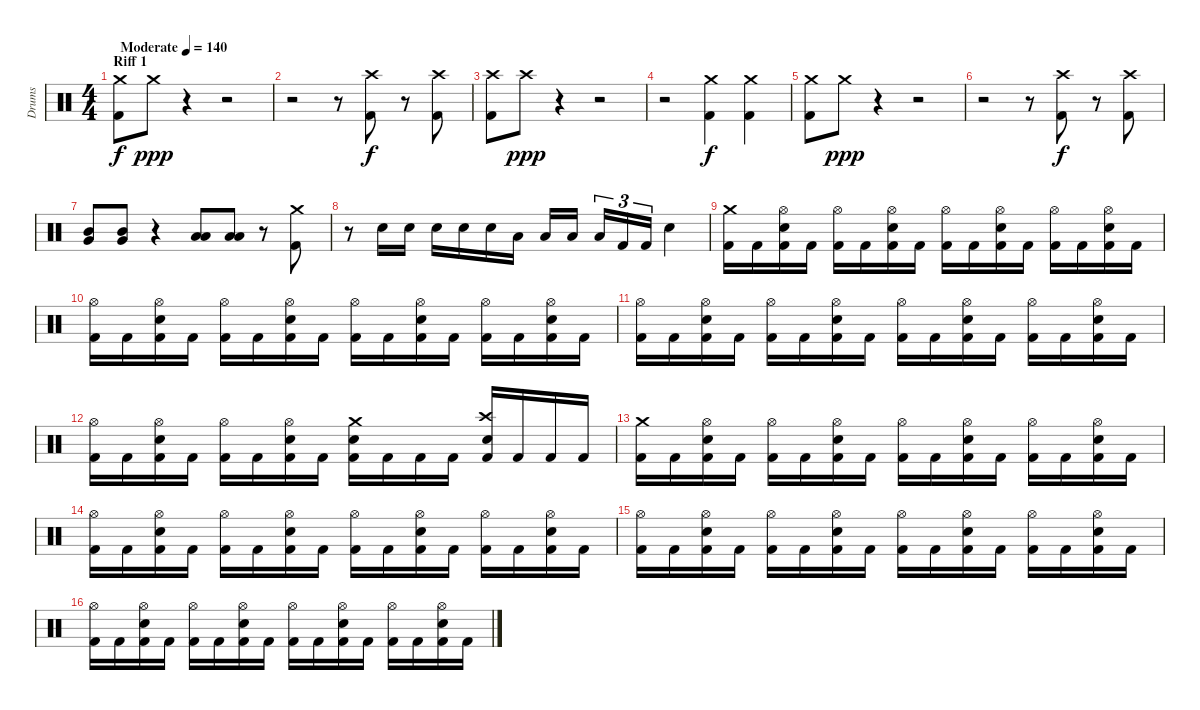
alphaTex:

\track ("Drums" "Drums") {instrument percussion}
\staff {score}
\articulation defaults
\ts (4 4)
\section ("" "Riff 1")
\tempo (140 "Moderate")
\clef neutral
\ks c
("Crash medium (hit)" "Kick (hit) 2").8{dy f} "Crash medium (hit)".8{dy ppp} r.4 r.2 |
r.2 r.8 ("Crash high (hit)" "Kick (hit) 2").8{dy f} r.8 ("Crash high (hit)" "Kick (hit) 2").8 |
("Crash high (hit)" "Kick (hit) 2").8 "Crash high (hit)".8{dy ppp} r.4 r.2 |
r.2 ("Kick (hit) 2" "Crash medium (hit)").4{dy f} ("Kick (hit) 2" "Crash medium (hit)").4 |
("Crash medium (hit)" "Kick (hit) 2").8 "Crash medium (hit)".8{dy ppp} r.4 r.2 |
r.2 r.8 ("Crash high (hit)" "Kick (hit) 2").8{dy f} r.8 ("Crash high (hit)" "Kick (hit) 2").8 |
("Mid Tom (hit)" "Very Low Tom (hit)").8 ("Mid Tom (hit)" "Very Low Tom (hit)").8 r.4 ("Low Tom (hit)" "Low Floor Tom (hit)").8 ("Low Tom (hit)" "Low Floor Tom (hit)").8 r.8 ("Crash medium (hit)" "Kick (hit) 2").8 |
r.8 "Electric Snare (hit)".16 "Electric Snare (hit)".16 "Electric Snare (hit)".16 "Electric Snare (hit)".16 "Electric Snare (hit)".16 "Low Tom (hit)".16 "Low Tom (hit)".16 "Low Tom (hit)".16{beam splitsecondary} "Low Floor Tom (hit)".16{tu (3 2)} "Kick (hit) 2".16{tu (3 2)} "Kick (hit) 2".16{tu (3 2)} "Electric Snare (hit)".4 |
("Crash medium (hit)" "Kick (hit) 2").16 "Kick (hit) 2".16 ("Electric Snare (hit)" "Hi-Hat (open)" "Kick (hit) 2").16 "Kick (hit) 2".16 ("Hi-Hat (open)" "Kick (hit) 2").16 "Kick (hit) 2".16 ("Electric Snare (hit)" "Hi-Hat (open)" "Kick (hit) 2").16 "Kick (hit) 2".16 ("Hi-Hat (open)" "Kick (hit) 2").16 "Kick (hit) 2".16 ("Electric Snare (hit)" "Hi-Hat (open)" "Kick (hit) 2").16 "Kick (hit) 2".16 ("Hi-Hat (open)" "Kick (hit) 2").16 "Kick (hit) 2".16 ("Kick (hit) 2" "Electric Snare (hit)" "Hi-Hat (open)").16 "Kick (hit) 2".16 |
("Hi-Hat (open)" "Kick (hit) 2").16 "Kick (hit) 2".16 ("Electric Snare (hit)" "Hi-Hat (open)" "Kick (hit) 2").16 "Kick (hit) 2".16 ("Hi-Hat (open)" "Kick (hit) 2").16 "Kick (hit) 2".16 ("Kick (hit) 2" "Electric Snare (hit)" "Hi-Hat (open)").16 "Kick (hit) 2".16 ("Hi-Hat (open)" "Kick (hit) 2").16 "Kick (hit) 2".16 ("Electric Snare (hit)" "Hi-Hat (open)" "Kick (hit) 2").16 "Kick (hit) 2".16 ("Hi-Hat (open)" "Kick (hit) 2").16 "Kick (hit) 2".16 ("Kick (hit) 2" "Electric Snare (hit)" "Hi-Hat (open)").16 "Kick (hit) 2".16 |
("Hi-Hat (open)" "Kick (hit) 2").16 "Kick (hit) 2".16 ("Electric Snare (hit)" "Hi-Hat (open)" "Kick (hit) 2").16 "Kick (hit) 2".16 ("Hi-Hat (open)" "Kick (hit) 2").16 "Kick (hit) 2".16 ("Kick (hit) 2" "Electric Snare (hit)" "Hi-Hat (open)").16 "Kick (hit) 2".16 ("Hi-Hat (open)" "Kick (hit) 2").16 "Kick (hit) 2".16 ("Electric Snare (hit)" "Hi-Hat (open)" "Kick (hit) 2").16 "Kick (hit) 2".16 ("Hi-Hat (open)" "Kick (hit) 2").16 "Kick (hit) 2".16 ("Kick (hit) 2" "Electric Snare (hit)" "Hi-Hat (open)").16 "Kick (hit) 2".16 |
("Hi-Hat (open)" "Kick (hit) 2").16 "Kick (hit) 2".16 ("Electric Snare (hit)" "Hi-Hat (open)" "Kick (hit) 2").16 "Kick (hit) 2".16 ("Hi-Hat (open)" "Kick (hit) 2").16 "Kick (hit) 2".16 ("Kick (hit) 2" "Electric Snare (hit)" "Hi-Hat (open)").16 "Kick (hit) 2".16 ("Electric Snare (hit)" "Crash medium (hit)" "Kick (hit) 2").16 "Kick (hit) 2".16 "Kick (hit) 2".16 "Kick (hit) 2".16 ("Electric Snare (hit)" "Crash high (hit)" "Kick (hit) 2").16 "Kick (hit) 2".16 "Kick (hit) 2".16 "Kick (hit) 2".16 |
("Crash medium (hit)" "Kick (hit) 2").16 "Kick (hit) 2".16 ("Electric Snare (hit)" "Hi-Hat (open)" "Kick (hit) 2").16 "Kick (hit) 2".16 ("Hi-Hat (open)" "Kick (hit) 2").16 "Kick (hit) 2".16 ("Electric Snare (hit)" "Hi-Hat (open)" "Kick (hit) 2").16 "Kick (hit) 2".16 ("Hi-Hat (open)" "Kick (hit) 2").16 "Kick (hit) 2".16 ("Electric Snare (hit)" "Hi-Hat (open)" "Kick (hit) 2").16 "Kick (hit) 2".16 ("Hi-Hat (open)" "Kick (hit) 2").16 "Kick (hit) 2".16 ("Kick (hit) 2" "Electric Snare (hit)" "Hi-Hat (open)").16 "Kick (hit) 2".16 |
("Hi-Hat (open)" "Kick (hit) 2").16 "Kick (hit) 2".16 ("Electric Snare (hit)" "Hi-Hat (open)" "Kick (hit) 2").16 "Kick (hit) 2".16 ("Hi-Hat (open)" "Kick (hit) 2").16 "Kick (hit) 2".16 ("Kick (hit) 2" "Electric Snare (hit)" "Hi-Hat (open)").16 "Kick (hit) 2".16 ("Hi-Hat (open)" "Kick (hit) 2").16 "Kick (hit) 2".16 ("Electric Snare (hit)" "Hi-Hat (open)" "Kick (hit) 2").16 "Kick (hit) 2".16 ("Hi-Hat (open)" "Kick (hit) 2").16 "Kick (hit) 2".16 ("Kick (hit) 2" "Electric Snare (hit)" "Hi-Hat (open)").16 "Kick (hit) 2".16 |
("Hi-Hat (open)" "Kick (hit) 2").16 "Kick (hit) 2".16 ("Electric Snare (hit)" "Hi-Hat (open)" "Kick (hit) 2").16 "Kick (hit) 2".16 ("Hi-Hat (open)" "Kick (hit) 2").16 "Kick (hit) 2".16 ("Kick (hit) 2" "Electric Snare (hit)" "Hi-Hat (open)").16 "Kick (hit) 2".16 ("Hi-Hat (open)" "Kick (hit) 2").16 "Kick (hit) 2".16 ("Electric Snare (hit)" "Hi-Hat (open)" "Kick (hit) 2").16 "Kick (hit) 2".16 ("Hi-Hat (open)" "Kick (hit) 2").16 "Kick (hit) 2".16 ("Kick (hit) 2" "Electric Snare (hit)" "Hi-Hat (open)").16 "Kick (hit) 2".16 |
("Hi-Hat (open)" "Kick (hit) 2").16 "Kick (hit) 2".16 ("Electric Snare (hit)" "Hi-Hat (open)" "Kick (hit) 2").16 "Kick (hit) 2".16 ("Hi-Hat (open)" "Kick (hit) 2").16 "Kick (hit) 2".16 ("Kick (hit) 2" "Electric Snare (hit)" "Hi-Hat (open)").16 "Kick (hit) 2".16 ("Hi-Hat (open)" "Kick (hit) 2").16 "Kick (hit) 2".16 ("Electric Snare (hit)" "Hi-Hat (open)" "Kick (hit) 2").16 "Kick (hit) 2".16 ("Hi-Hat (open)" "Kick (hit) 2").16 "Kick (hit) 2".16 ("Kick (hit) 2" "Electric Snare (hit)" "Hi-Hat (open)").16 "Kick (hit) 2".16
